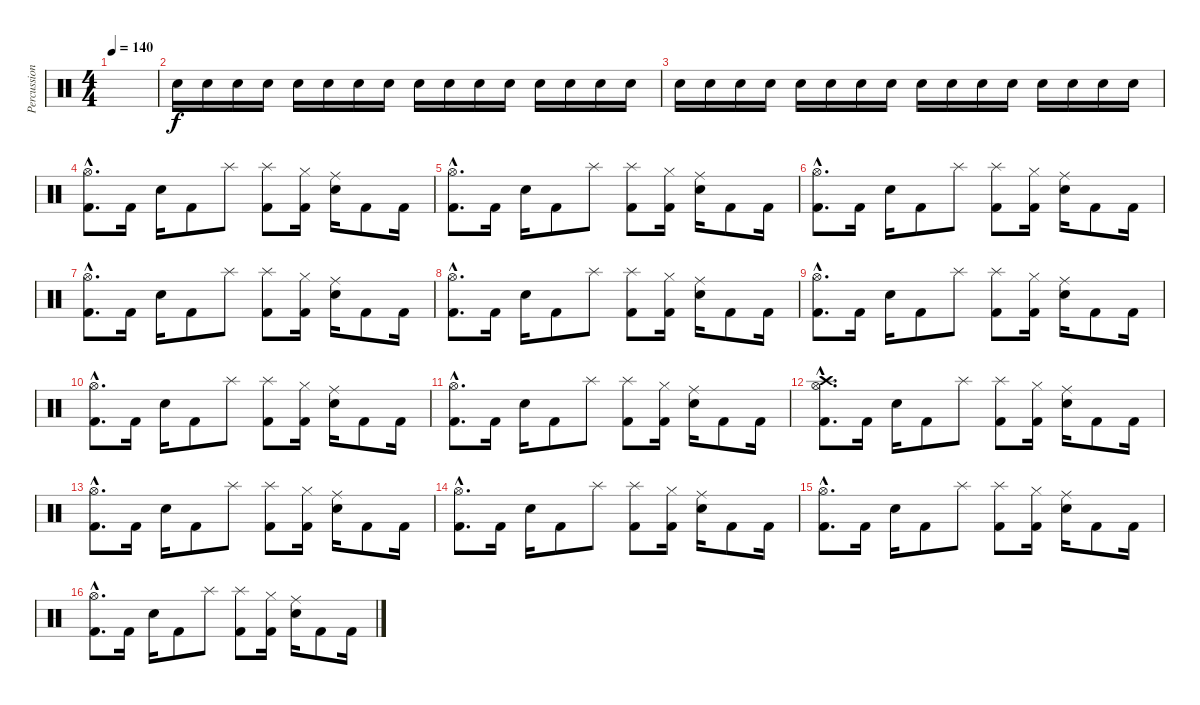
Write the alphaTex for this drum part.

\track ("Percussion" "Percussion") {instrument percussion}
\staff {score}
\articulation defaults
\ts (4 4)
\tempo 140
\clef neutral
\ks c
|
"Electric Snare (hit)".16{volume 3} "Electric Snare (hit)".16 "Electric Snare (hit)".16 "Electric Snare (hit)".16 "Electric Snare (hit)".16{volume 5} "Electric Snare (hit)".16 "Electric Snare (hit)".16 "Electric Snare (hit)".16 "Electric Snare (hit)".16{volume 7} "Electric Snare (hit)".16 "Electric Snare (hit)".16 "Electric Snare (hit)".16 "Electric Snare (hit)".16{volume 9} "Electric Snare (hit)".16 "Electric Snare (hit)".16 "Electric Snare (hit)".16 |
"Electric Snare (hit)".16{volume 11} "Electric Snare (hit)".16 "Electric Snare (hit)".16 "Electric Snare (hit)".16 "Electric Snare (hit)".16{volume 13} "Electric Snare (hit)".16 "Electric Snare (hit)".16 "Electric Snare (hit)".16 "Electric Snare (hit)".16{volume 15} "Electric Snare (hit)".16 "Electric Snare (hit)".16 "Electric Snare (hit)".16 "Electric Snare (hit)".16 "Electric Snare (hit)".16 "Electric Snare (hit)".16 "Electric Snare (hit)".16 |
("Hi-Hat (open)"{hac} "Kick (hit) 2"{hac}).8{d volume 13} "Kick (hit) 2".16 "Electric Snare (hit)".16 "Kick (hit) 2".8 "Splash (hit)".8 ("Splash (hit)" "Kick (hit) 2").8 ("Hi-Hat (closed)" "Kick (hit) 2").16 ("Ride (middle)" "Electric Snare (hit)").16 "Kick (hit) 2".8 "Kick (hit) 2".16 |
("Hi-Hat (open)"{hac} "Kick (hit) 2"{hac}).8{d} "Kick (hit) 2".16 "Electric Snare (hit)".16 "Kick (hit) 2".8 "Splash (hit)".8 ("Splash (hit)" "Kick (hit) 2").8 ("Hi-Hat (closed)" "Kick (hit) 2").16 ("Ride (middle)" "Electric Snare (hit)").16 "Kick (hit) 2".8 "Kick (hit) 2".16 |
("Hi-Hat (open)"{hac} "Kick (hit) 2"{hac}).8{d} "Kick (hit) 2".16 "Electric Snare (hit)".16 "Kick (hit) 2".8 "Splash (hit)".8 ("Splash (hit)" "Kick (hit) 2").8 ("Hi-Hat (closed)" "Kick (hit) 2").16 ("Ride (middle)" "Electric Snare (hit)").16 "Kick (hit) 2".8 "Kick (hit) 2".16 |
("Hi-Hat (open)"{hac} "Kick (hit) 2"{hac}).8{d} "Kick (hit) 2".16 "Electric Snare (hit)".16 "Kick (hit) 2".8 "Splash (hit)".8 ("Splash (hit)" "Kick (hit) 2").8 ("Hi-Hat (closed)" "Kick (hit) 2").16 ("Ride (middle)" "Electric Snare (hit)").16 "Kick (hit) 2".8 "Kick (hit) 2".16 |
("Hi-Hat (open)"{hac} "Kick (hit) 2"{hac}).8{d} "Kick (hit) 2".16 "Electric Snare (hit)".16 "Kick (hit) 2".8 "Splash (hit)".8 ("Splash (hit)" "Kick (hit) 2").8 ("Hi-Hat (closed)" "Kick (hit) 2").16 ("Ride (middle)" "Electric Snare (hit)").16 "Kick (hit) 2".8 "Kick (hit) 2".16 |
("Hi-Hat (open)"{hac} "Kick (hit) 2"{hac}).8{d} "Kick (hit) 2".16 "Electric Snare (hit)".16 "Kick (hit) 2".8 "Splash (hit)".8 ("Splash (hit)" "Kick (hit) 2").8 ("Hi-Hat (closed)" "Kick (hit) 2").16 ("Ride (middle)" "Electric Snare (hit)").16 "Kick (hit) 2".8 "Kick (hit) 2".16 |
("Hi-Hat (open)"{hac} "Kick (hit) 2"{hac}).8{d} "Kick (hit) 2".16 "Electric Snare (hit)".16 "Kick (hit) 2".8 "Splash (hit)".8 ("Splash (hit)" "Kick (hit) 2").8 ("Hi-Hat (closed)" "Kick (hit) 2").16 ("Ride (middle)" "Electric Snare (hit)").16 "Kick (hit) 2".8 "Kick (hit) 2".16 |
("Hi-Hat (open)"{hac} "Kick (hit) 2"{hac}).8{d} "Kick (hit) 2".16 "Electric Snare (hit)".16 "Kick (hit) 2".8 "Splash (hit)".8 ("Splash (hit)" "Kick (hit) 2").8 ("Hi-Hat (closed)" "Kick (hit) 2").16 ("Ride (middle)" "Electric Snare (hit)").16 "Kick (hit) 2".8 "Kick (hit) 2".16 |
("Crash high (hit)"{hac} "Hi-Hat (open)"{hac} "Kick (hit) 2"{hac}).8{d} "Kick (hit) 2".16 "Electric Snare (hit)".16 "Kick (hit) 2".8 "Splash (hit)".8 ("Splash (hit)" "Kick (hit) 2").8 ("Hi-Hat (closed)" "Kick (hit) 2").16 ("Ride (middle)" "Electric Snare (hit)").16 "Kick (hit) 2".8 "Kick (hit) 2".16 |
("Hi-Hat (open)"{hac} "Kick (hit) 2"{hac}).8{d} "Kick (hit) 2".16 "Electric Snare (hit)".16 "Kick (hit) 2".8 "Splash (hit)".8 ("Splash (hit)" "Kick (hit) 2").8 ("Hi-Hat (closed)" "Kick (hit) 2").16 ("Ride (middle)" "Electric Snare (hit)").16 "Kick (hit) 2".8 "Kick (hit) 2".16 |
("Hi-Hat (open)"{hac} "Kick (hit) 2"{hac}).8{d} "Kick (hit) 2".16 "Electric Snare (hit)".16 "Kick (hit) 2".8 "Splash (hit)".8 ("Splash (hit)" "Kick (hit) 2").8 ("Hi-Hat (closed)" "Kick (hit) 2").16 ("Ride (middle)" "Electric Snare (hit)").16 "Kick (hit) 2".8 "Kick (hit) 2".16 |
("Hi-Hat (open)"{hac} "Kick (hit) 2"{hac}).8{d} "Kick (hit) 2".16 "Electric Snare (hit)".16 "Kick (hit) 2".8 "Splash (hit)".8 ("Splash (hit)" "Kick (hit) 2").8 ("Hi-Hat (closed)" "Kick (hit) 2").16 ("Ride (middle)" "Electric Snare (hit)").16 "Kick (hit) 2".8 "Kick (hit) 2".16 |
("Hi-Hat (open)"{hac} "Kick (hit) 2"{hac}).8{d} "Kick (hit) 2".16 "Electric Snare (hit)".16 "Kick (hit) 2".8 "Splash (hit)".8 ("Splash (hit)" "Kick (hit) 2").8 ("Hi-Hat (closed)" "Kick (hit) 2").16 ("Ride (middle)" "Electric Snare (hit)").16 "Kick (hit) 2".8 "Kick (hit) 2".16
